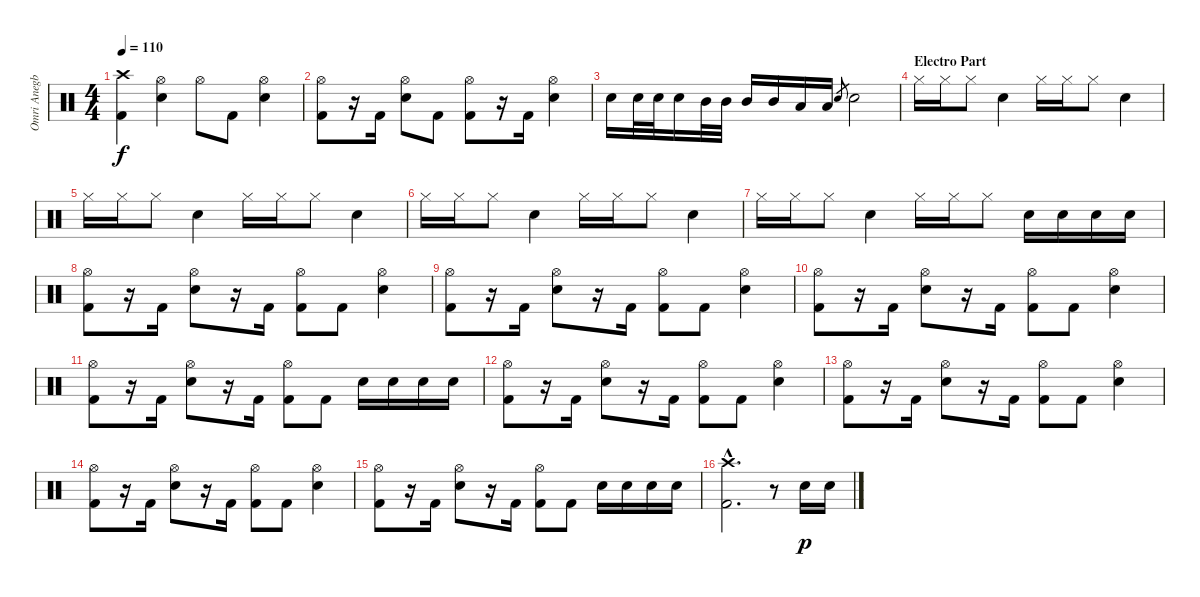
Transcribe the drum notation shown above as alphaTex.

\track ("Omri Anegbi" "Omri Anegb") {instrument percussion}
\staff {score}
\articulation defaults
\ts (4 4)
\tempo 110
\clef neutral
\ks c
("Crash high (hit)" "Kick (hit) 2").4{dy f} ("Hi-Hat (open)" "Snare (hit) 2").4 "Hi-Hat (open)".8 "Kick (hit) 2".8 ("Hi-Hat (open)" "Snare (hit) 2").4 |
("Hi-Hat (open)" "Kick (hit) 2").8 r.16 "Kick (hit) 2".16 ("Hi-Hat (open)" "Snare (hit) 2").8 "Kick (hit) 2".8 ("Hi-Hat (open)" "Kick (hit) 2").8 r.16 "Kick (hit) 2".16 ("Hi-Hat (open)" "Snare (hit) 2").4 |
"Snare (hit) 2".16 "Snare (hit) 2".32 "Snare (hit) 2".32 "Snare (hit) 2".16 "Mid Tom (hit)".32 "Mid Tom (hit)".32 "Mid Tom (hit)".16 "Mid Tom (hit)".16 "Low Tom (hit)".16 "Low Tom (hit)".16 "Snare (hit) 2".8{gr} "Snare (hit) 2".2 |
\section ("" "Electro Part")
"Hi-Hat (closed)".16{volume 7 balance 0} "Hi-Hat (closed)".16 "Hi-Hat (closed)".8 "Electric Snare (hit)".4{balance 16} "Hi-Hat (closed)".16{balance 0} "Hi-Hat (closed)".16 "Hi-Hat (closed)".8 "Electric Snare (hit)".4{balance 16} |
"Hi-Hat (closed)".16{volume 7 balance 0} "Hi-Hat (closed)".16 "Hi-Hat (closed)".8 "Electric Snare (hit)".4{balance 16} "Hi-Hat (closed)".16{balance 0} "Hi-Hat (closed)".16 "Hi-Hat (closed)".8 "Electric Snare (hit)".4{balance 16} |
"Hi-Hat (closed)".16{volume 7 balance 0} "Hi-Hat (closed)".16 "Hi-Hat (closed)".8 "Electric Snare (hit)".4{balance 16} "Hi-Hat (closed)".16{balance 0} "Hi-Hat (closed)".16 "Hi-Hat (closed)".8 "Electric Snare (hit)".4{balance 16} |
"Hi-Hat (closed)".16{volume 7 balance 0} "Hi-Hat (closed)".16 "Hi-Hat (closed)".8 "Electric Snare (hit)".4{balance 16} "Hi-Hat (closed)".16{balance 0} "Hi-Hat (closed)".16 "Hi-Hat (closed)".8 "Electric Snare (hit)".16{balance 16} "Electric Snare (hit)".16 "Electric Snare (hit)".16 "Electric Snare (hit)".16 |
("Hi-Hat (open)" "Kick (hit) 2").8{balance 8} r.16 "Kick (hit) 2".16 ("Hi-Hat (open)" "Electric Snare (hit)").8 r.16 "Kick (hit) 2".16 ("Hi-Hat (open)" "Kick (hit) 2").8 "Kick (hit) 2".8 ("Hi-Hat (open)" "Electric Snare (hit)").4 |
("Hi-Hat (open)" "Kick (hit) 2").8 r.16 "Kick (hit) 2".16 ("Hi-Hat (open)" "Electric Snare (hit)").8 r.16 "Kick (hit) 2".16 ("Hi-Hat (open)" "Kick (hit) 2").8 "Kick (hit) 2".8 ("Hi-Hat (open)" "Electric Snare (hit)").4 |
("Hi-Hat (open)" "Kick (hit) 2").8 r.16 "Kick (hit) 2".16 ("Hi-Hat (open)" "Electric Snare (hit)").8 r.16 "Kick (hit) 2".16 ("Hi-Hat (open)" "Kick (hit) 2").8 "Kick (hit) 2".8 ("Hi-Hat (open)" "Electric Snare (hit)").4 |
("Hi-Hat (open)" "Kick (hit) 2").8 r.16 "Kick (hit) 2".16 ("Hi-Hat (open)" "Electric Snare (hit)").8 r.16 "Kick (hit) 2".16 ("Hi-Hat (open)" "Kick (hit) 2").8 "Kick (hit) 2".8 "Electric Snare (hit)".16 "Electric Snare (hit)".16 "Electric Snare (hit)".16 "Electric Snare (hit)".16 |
("Hi-Hat (open)" "Kick (hit) 2").8 r.16 "Kick (hit) 2".16 ("Hi-Hat (open)" "Electric Snare (hit)").8 r.16 "Kick (hit) 2".16 ("Hi-Hat (open)" "Kick (hit) 2").8 "Kick (hit) 2".8 ("Hi-Hat (open)" "Electric Snare (hit)").4 |
("Hi-Hat (open)" "Kick (hit) 2").8 r.16 "Kick (hit) 2".16 ("Hi-Hat (open)" "Electric Snare (hit)").8 r.16 "Kick (hit) 2".16 ("Hi-Hat (open)" "Kick (hit) 2").8 "Kick (hit) 2".8 ("Hi-Hat (open)" "Electric Snare (hit)").4 |
("Hi-Hat (open)" "Kick (hit) 2").8 r.16 "Kick (hit) 2".16 ("Hi-Hat (open)" "Electric Snare (hit)").8 r.16 "Kick (hit) 2".16 ("Hi-Hat (open)" "Kick (hit) 2").8 "Kick (hit) 2".8 ("Hi-Hat (open)" "Electric Snare (hit)").4 |
("Hi-Hat (open)" "Kick (hit) 2").8 r.16 "Kick (hit) 2".16 ("Hi-Hat (open)" "Electric Snare (hit)").8 r.16 "Kick (hit) 2".16 ("Hi-Hat (open)" "Kick (hit) 2").8 "Kick (hit) 2".8 "Electric Snare (hit)".16 "Electric Snare (hit)".16 "Electric Snare (hit)".16 "Electric Snare (hit)".16 |
("Crash high (hit)"{hac} "Kick (hit) 2"{hac}).2{d volume 13 balance 8} r.8 "Snare (hit) 2".16{dy p} "Snare (hit) 2".16
